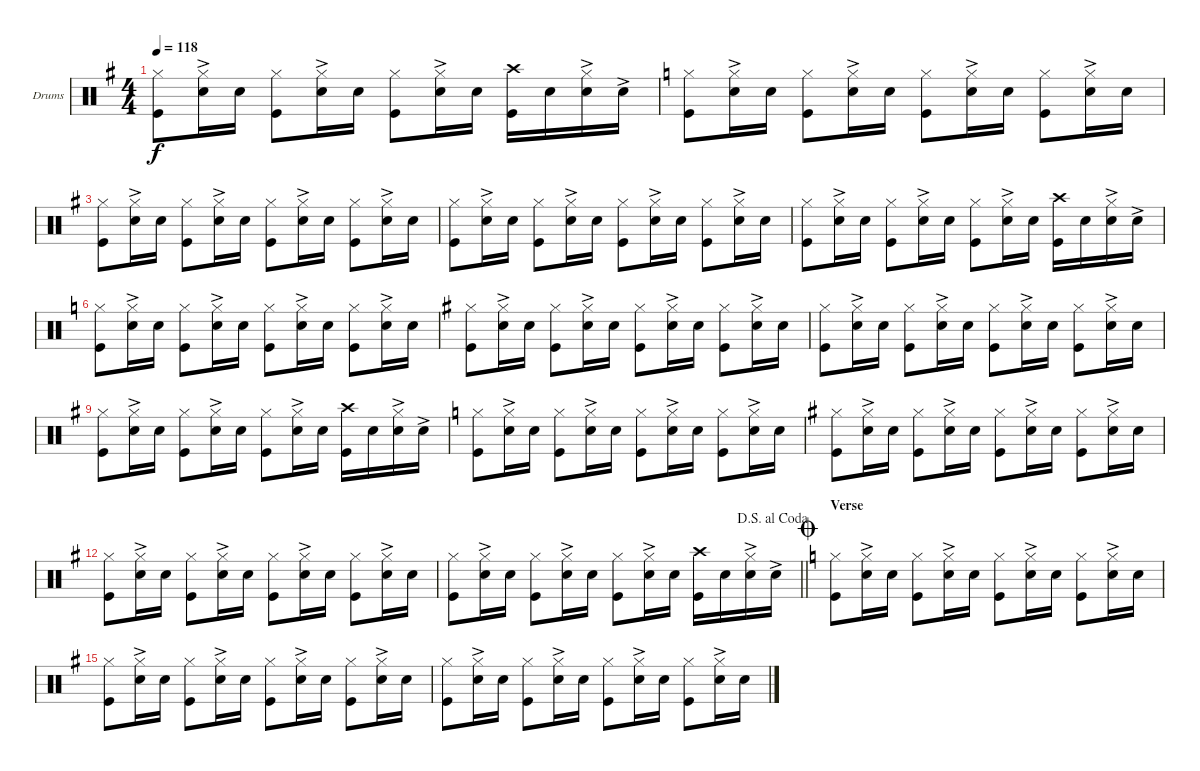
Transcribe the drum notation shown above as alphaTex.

\bracketExtendMode nobrackets
\firstSystemTrackNameOrientation horizontal
\otherSystemsTrackNameOrientation horizontal
\defaultBarNumberDisplay FirstOfSystem
\track ("Drumkit" "Drums") {instrument percussion}
\staff {score}
\articulation defaults
\ts (4 4)
\tempo 118
\clef neutral
\scale
0.314607
\ks g
("Kick (hit)" "Hi-Hat (closed)").8{dy f} ("Snare (hit) 2"{ac} "Hi-Hat (closed)").16 "Snare (hit) 2".16 ("Kick (hit)" "Hi-Hat (closed)").8 ("Snare (hit) 2"{ac} "Hi-Hat (closed)").16 "Snare (hit) 2".16 ("Kick (hit)" "Hi-Hat (closed)").8 ("Snare (hit) 2"{ac} "Hi-Hat (closed)").16 "Snare (hit) 2".16 ("Kick (hit)" "Crash high (hit)").16 "Snare (hit) 2".16 ("Snare (hit) 2"{ac} "Hi-Hat (closed)").16 "Snare (hit) 2"{ac}.16 |
\scale
0.370787
\ks c
("Kick (hit)" "Hi-Hat (closed)").8 ("Snare (hit) 2"{ac} "Hi-Hat (closed)").16 "Snare (hit) 2".16 ("Kick (hit)" "Hi-Hat (closed)").8 ("Snare (hit) 2"{ac} "Hi-Hat (closed)").16 "Snare (hit) 2".16 ("Kick (hit)" "Hi-Hat (closed)").8 ("Snare (hit) 2"{ac} "Hi-Hat (closed)").16 "Snare (hit) 2".16 ("Kick (hit)" "Hi-Hat (closed)").8 ("Snare (hit) 2"{ac} "Hi-Hat (closed)").16 "Snare (hit) 2".16 |
\scale
0.381215
\ks g
("Kick (hit)" "Hi-Hat (closed)").8 ("Snare (hit) 2"{ac} "Hi-Hat (closed)").16 "Snare (hit) 2".16 ("Kick (hit)" "Hi-Hat (closed)").8 ("Snare (hit) 2"{ac} "Hi-Hat (closed)").16 "Snare (hit) 2".16 ("Kick (hit)" "Hi-Hat (closed)").8 ("Snare (hit) 2"{ac} "Hi-Hat (closed)").16 "Snare (hit) 2".16 ("Kick (hit)" "Hi-Hat (closed)").8 ("Snare (hit) 2"{ac} "Hi-Hat (closed)").16 "Snare (hit) 2".16 |
\scale
0.309392 ("Kick (hit)" "Hi-Hat (closed)").8 ("Snare (hit) 2"{ac} "Hi-Hat (closed)").16 "Snare (hit) 2".16 ("Kick (hit)" "Hi-Hat (closed)").8 ("Snare (hit) 2"{ac} "Hi-Hat (closed)").16 "Snare (hit) 2".16 ("Kick (hit)" "Hi-Hat (closed)").8 ("Snare (hit) 2"{ac} "Hi-Hat (closed)").16 "Snare (hit) 2".16 ("Kick (hit)" "Hi-Hat (closed)").8 ("Snare (hit) 2"{ac} "Hi-Hat (closed)").16 "Snare (hit) 2".16 |
\scale
0.309392 ("Kick (hit)" "Hi-Hat (closed)").8 ("Snare (hit) 2"{ac} "Hi-Hat (closed)").16 "Snare (hit) 2".16 ("Kick (hit)" "Hi-Hat (closed)").8 ("Snare (hit) 2"{ac} "Hi-Hat (closed)").16 "Snare (hit) 2".16 ("Kick (hit)" "Hi-Hat (closed)").8 ("Snare (hit) 2"{ac} "Hi-Hat (closed)").16 "Snare (hit) 2".16 ("Kick (hit)" "Crash high (hit)").16 "Snare (hit) 2".16 ("Snare (hit) 2"{ac} "Hi-Hat (closed)").16 "Snare (hit) 2"{ac}.16 |
\scale
0.34555
\ks c
("Kick (hit)" "Hi-Hat (closed)").8 ("Snare (hit) 2"{ac} "Hi-Hat (closed)").16 "Snare (hit) 2".16 ("Kick (hit)" "Hi-Hat (closed)").8 ("Snare (hit) 2"{ac} "Hi-Hat (closed)").16 "Snare (hit) 2".16 ("Kick (hit)" "Hi-Hat (closed)").8 ("Snare (hit) 2"{ac} "Hi-Hat (closed)").16 "Snare (hit) 2".16 ("Kick (hit)" "Hi-Hat (closed)").8 ("Snare (hit) 2"{ac} "Hi-Hat (closed)").16 "Snare (hit) 2".16 |
\scale
0.361257
\ks g
("Kick (hit)" "Hi-Hat (closed)").8 ("Snare (hit) 2"{ac} "Hi-Hat (closed)").16 "Snare (hit) 2".16 ("Kick (hit)" "Hi-Hat (closed)").8 ("Snare (hit) 2"{ac} "Hi-Hat (closed)").16 "Snare (hit) 2".16 ("Kick (hit)" "Hi-Hat (closed)").8 ("Snare (hit) 2"{ac} "Hi-Hat (closed)").16 "Snare (hit) 2".16 ("Kick (hit)" "Hi-Hat (closed)").8 ("Snare (hit) 2"{ac} "Hi-Hat (closed)").16 "Snare (hit) 2".16 |
\scale
0.293194 ("Kick (hit)" "Hi-Hat (closed)").8 ("Snare (hit) 2"{ac} "Hi-Hat (closed)").16 "Snare (hit) 2".16 ("Kick (hit)" "Hi-Hat (closed)").8 ("Snare (hit) 2"{ac} "Hi-Hat (closed)").16 "Snare (hit) 2".16 ("Kick (hit)" "Hi-Hat (closed)").8 ("Snare (hit) 2"{ac} "Hi-Hat (closed)").16 "Snare (hit) 2".16 ("Kick (hit)" "Hi-Hat (closed)").8 ("Snare (hit) 2"{ac} "Hi-Hat (closed)").16 "Snare (hit) 2".16 |
\scale
0.293194 ("Kick (hit)" "Hi-Hat (closed)").8 ("Snare (hit) 2"{ac} "Hi-Hat (closed)").16 "Snare (hit) 2".16 ("Kick (hit)" "Hi-Hat (closed)").8 ("Snare (hit) 2"{ac} "Hi-Hat (closed)").16 "Snare (hit) 2".16 ("Kick (hit)" "Hi-Hat (closed)").8 ("Snare (hit) 2"{ac} "Hi-Hat (closed)").16 "Snare (hit) 2".16 ("Kick (hit)" "Crash high (hit)").16 "Snare (hit) 2".16 ("Snare (hit) 2"{ac} "Hi-Hat (closed)").16 "Snare (hit) 2"{ac}.16 |
\scale
0.34555
\ks c
("Kick (hit)" "Hi-Hat (closed)").8 ("Snare (hit) 2"{ac} "Hi-Hat (closed)").16 "Snare (hit) 2".16 ("Kick (hit)" "Hi-Hat (closed)").8 ("Snare (hit) 2"{ac} "Hi-Hat (closed)").16 "Snare (hit) 2".16 ("Kick (hit)" "Hi-Hat (closed)").8 ("Snare (hit) 2"{ac} "Hi-Hat (closed)").16 "Snare (hit) 2".16 ("Kick (hit)" "Hi-Hat (closed)").8 ("Snare (hit) 2"{ac} "Hi-Hat (closed)").16 "Snare (hit) 2".16 |
\scale
0.361257
\ks g
("Kick (hit)" "Hi-Hat (closed)").8 ("Snare (hit) 2"{ac} "Hi-Hat (closed)").16 "Snare (hit) 2".16 ("Kick (hit)" "Hi-Hat (closed)").8 ("Snare (hit) 2"{ac} "Hi-Hat (closed)").16 "Snare (hit) 2".16 ("Kick (hit)" "Hi-Hat (closed)").8 ("Snare (hit) 2"{ac} "Hi-Hat (closed)").16 "Snare (hit) 2".16 ("Kick (hit)" "Hi-Hat (closed)").8 ("Snare (hit) 2"{ac} "Hi-Hat (closed)").16 "Snare (hit) 2".16 |
\scale
0.314607 ("Kick (hit)" "Hi-Hat (closed)").8 ("Snare (hit) 2"{ac} "Hi-Hat (closed)").16 "Snare (hit) 2".16 ("Kick (hit)" "Hi-Hat (closed)").8 ("Snare (hit) 2"{ac} "Hi-Hat (closed)").16 "Snare (hit) 2".16 ("Kick (hit)" "Hi-Hat (closed)").8 ("Snare (hit) 2"{ac} "Hi-Hat (closed)").16 "Snare (hit) 2".16 ("Kick (hit)" "Hi-Hat (closed)").8 ("Snare (hit) 2"{ac} "Hi-Hat (closed)").16 "Snare (hit) 2".16 |
\jump dalsegnoalcoda
\scale
0.314607
\barLineRight lightlight
("Kick (hit)" "Hi-Hat (closed)").8 ("Snare (hit) 2"{ac} "Hi-Hat (closed)").16 "Snare (hit) 2".16 ("Kick (hit)" "Hi-Hat (closed)").8 ("Snare (hit) 2"{ac} "Hi-Hat (closed)").16 "Snare (hit) 2".16 ("Kick (hit)" "Hi-Hat (closed)").8 ("Snare (hit) 2"{ac} "Hi-Hat (closed)").16 "Snare (hit) 2".16 ("Kick (hit)" "Crash high (hit)").16 "Snare (hit) 2".16 ("Snare (hit) 2"{ac} "Hi-Hat (closed)").16 "Snare (hit) 2"{ac}.16 |
\section ("" "Verse")
\jump coda
\scale
0.370787
\ks c
("Kick (hit)" "Hi-Hat (closed)").8 ("Snare (hit) 2"{ac} "Hi-Hat (closed)").16 "Snare (hit) 2".16 ("Kick (hit)" "Hi-Hat (closed)").8 ("Snare (hit) 2"{ac} "Hi-Hat (closed)").16 "Snare (hit) 2".16 ("Kick (hit)" "Hi-Hat (closed)").8 ("Snare (hit) 2"{ac} "Hi-Hat (closed)").16 "Snare (hit) 2".16 ("Kick (hit)" "Hi-Hat (closed)").8 ("Snare (hit) 2"{ac} "Hi-Hat (closed)").16 "Snare (hit) 2".16 |
\scale
0.381215
\ks g
("Kick (hit)" "Hi-Hat (closed)").8 ("Snare (hit) 2"{ac} "Hi-Hat (closed)").16 "Snare (hit) 2".16 ("Kick (hit)" "Hi-Hat (closed)").8 ("Snare (hit) 2"{ac} "Hi-Hat (closed)").16 "Snare (hit) 2".16 ("Kick (hit)" "Hi-Hat (closed)").8 ("Snare (hit) 2"{ac} "Hi-Hat (closed)").16 "Snare (hit) 2".16 ("Kick (hit)" "Hi-Hat (closed)").8 ("Snare (hit) 2"{ac} "Hi-Hat (closed)").16 "Snare (hit) 2".16 |
\scale
0.309392 ("Kick (hit)" "Hi-Hat (closed)").8 ("Snare (hit) 2"{ac} "Hi-Hat (closed)").16 "Snare (hit) 2".16 ("Kick (hit)" "Hi-Hat (closed)").8 ("Snare (hit) 2"{ac} "Hi-Hat (closed)").16 "Snare (hit) 2".16 ("Kick (hit)" "Hi-Hat (closed)").8 ("Snare (hit) 2"{ac} "Hi-Hat (closed)").16 "Snare (hit) 2".16 ("Kick (hit)" "Hi-Hat (closed)").8 ("Snare (hit) 2"{ac} "Hi-Hat (closed)").16 "Snare (hit) 2".16
